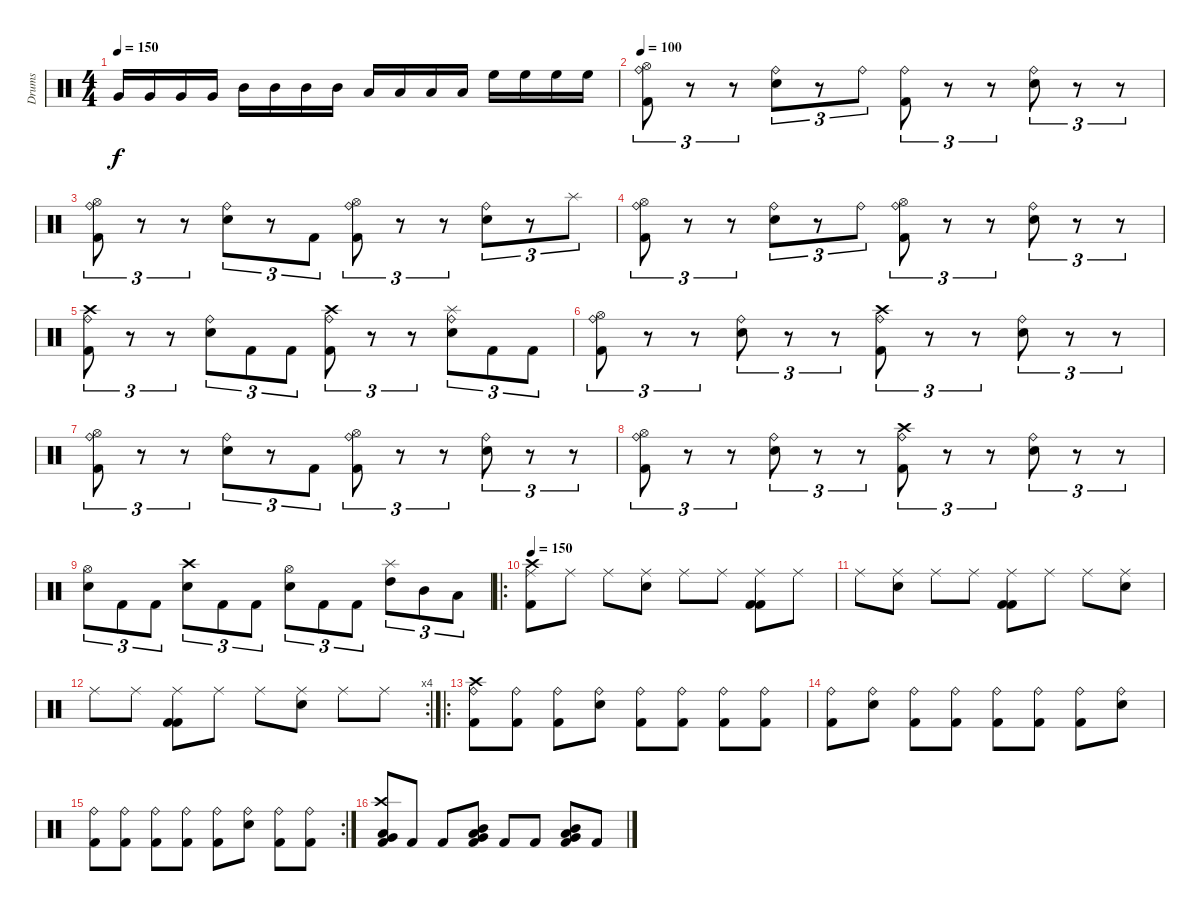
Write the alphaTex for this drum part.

\track ("Drums" "Drums") {instrument percussion}
\staff {score}
\articulation defaults
\ts (4 4)
\tempo 150
\clef neutral
\ks c "Very Low Tom (hit)".16{dy f} "Very Low Tom (hit)".16 "Very Low Tom (hit)".16 "Very Low Tom (hit)".16 "Mid Tom (hit)".16 "Mid Tom (hit)".16 "Mid Tom (hit)".16 "Mid Tom (hit)".16 "Low Tom (hit)".16 "Low Tom (hit)".16 "Low Tom (hit)".16 "Low Tom (hit)".16 "High Floor Tom (hit)".16 "High Floor Tom (hit)".16 "High Floor Tom (hit)".16 "High Floor Tom (hit)".16
|
\tempo 100
("Hi-Hat (open)" "Ride (bell)" "Kick (hit) 2").8{tu (3 2)} r.8{tu (3 2)} r.8{tu (3 2)} ("Ride (bell)" "Electric Snare (hit)").8{tu (3 2)} r.8{tu (3 2)} "Ride (bell)".8{tu (3 2)} ("Ride (bell)" "Kick (hit) 2").8{tu (3 2)} r.8{tu (3 2)} r.8{tu (3 2)} ("Ride (bell)" "Electric Snare (hit)").8{tu (3 2)} r.8{tu (3 2)} r.8{tu (3 2)} |
("Hi-Hat (open)" "Ride (bell)" "Kick (hit) 2").8{tu (3 2)} r.8{tu (3 2)} r.8{tu (3 2)} ("Ride (bell)" "Electric Snare (hit)").8{tu (3 2)} r.8{tu (3 2)} "Kick (hit) 2".8{tu (3 2)} ("Hi-Hat (open)" "Ride (bell)" "Kick (hit) 2").8{tu (3 2)} r.8{tu (3 2)} r.8{tu (3 2)} ("Ride (bell)" "Electric Snare (hit)").8{tu (3 2)} r.8{tu (3 2)} "Splash (hit)".8{tu (3 2)} |
("Hi-Hat (open)" "Ride (bell)" "Kick (hit) 2").8{tu (3 2)} r.8{tu (3 2)} r.8{tu (3 2)} ("Ride (bell)" "Electric Snare (hit)").8{tu (3 2)} r.8{tu (3 2)} "Ride (bell)".8{tu (3 2)} ("Hi-Hat (open)" "Ride (bell)" "Kick (hit) 2").8{tu (3 2)} r.8{tu (3 2)} r.8{tu (3 2)} ("Ride (bell)" "Electric Snare (hit)").8{tu (3 2)} r.8{tu (3 2)} r.8{tu (3 2)} |
("Crash high (hit)" "Ride (bell)" "Kick (hit) 2").8{tu (3 2)} r.8{tu (3 2)} r.8{tu (3 2)} ("Ride (bell)" "Electric Snare (hit)").8{tu (3 2)} "Kick (hit) 2".8{tu (3 2)} "Kick (hit) 2".8{tu (3 2)} ("Crash high (hit)" "Ride (bell)" "Kick (hit) 2").8{tu (3 2)} r.8{tu (3 2)} r.8{tu (3 2)} ("Splash (hit)" "Ride (bell)" "Electric Snare (hit)").8{tu (3 2)} "Kick (hit) 2".8{tu (3 2)} "Kick (hit) 2".8{tu (3 2)} |
("Hi-Hat (open)" "Ride (bell)" "Kick (hit) 2").8{tu (3 2)} r.8{tu (3 2)} r.8{tu (3 2)} ("Ride (bell)" "Electric Snare (hit)").8{tu (3 2)} r.8{tu (3 2)} r.8{tu (3 2)} ("Crash high (hit)" "Ride (bell)" "Kick (hit) 2").8{tu (3 2)} r.8{tu (3 2)} r.8{tu (3 2)} ("Ride (bell)" "Electric Snare (hit)").8{tu (3 2)} r.8{tu (3 2)} r.8{tu (3 2)} |
("Hi-Hat (open)" "Ride (bell)" "Kick (hit) 2").8{tu (3 2)} r.8{tu (3 2)} r.8{tu (3 2)} ("Ride (bell)" "Electric Snare (hit)").8{tu (3 2)} r.8{tu (3 2)} "Kick (hit) 2".8{tu (3 2)} ("Hi-Hat (open)" "Ride (bell)" "Kick (hit) 2").8{tu (3 2)} r.8{tu (3 2)} r.8{tu (3 2)} ("Ride (bell)" "Electric Snare (hit)").8{tu (3 2)} r.8{tu (3 2)} r.8{tu (3 2)} |
("Hi-Hat (open)" "Ride (bell)" "Kick (hit) 2").8{tu (3 2)} r.8{tu (3 2)} r.8{tu (3 2)} ("Ride (bell)" "Electric Snare (hit)").8{tu (3 2)} r.8{tu (3 2)} r.8{tu (3 2)} ("Crash high (hit)" "Ride (bell)" "Kick (hit) 2").8{tu (3 2)} r.8{tu (3 2)} r.8{tu (3 2)} ("Ride (bell)" "Electric Snare (hit)").8{tu (3 2)} r.8{tu (3 2)} r.8{tu (3 2)} |
("Hi-Hat (open)" "Electric Snare (hit)").8{tu (3 2)} "Kick (hit) 2".8{tu (3 2)} "Kick (hit) 2".8{tu (3 2)} ("Crash high (hit)" "Electric Snare (hit)").8{tu (3 2)} "Kick (hit) 2".8{tu (3 2)} "Kick (hit) 2".8{tu (3 2)} ("Hi-Hat (open)" "Electric Snare (hit)").8{tu (3 2)} "Kick (hit) 2".8{tu (3 2)} "Kick (hit) 2".8{tu (3 2)} ("Splash (hit)" "High Tom (hit)").8{tu (3 2)} "Mid Tom (hit)".8{tu (3 2)} "Low Tom (hit)".8{tu (3 2)} |
\ro
\tempo 150
("Crash high (hit)" "Kick (hit) 2" "Ride (middle)").8 "Ride (middle)".8 "Ride (middle)".8 ("Snare (hit) 2" "Ride (middle)").8 "Ride (middle)".8 "Ride (middle)".8 ("Kick (hit) 2" "Kick (hit) 2" "Ride (middle)").8 "Ride (middle)".8 |
"Ride (middle)".8 ("Snare (hit) 2" "Ride (middle)").8 "Ride (middle)".8 "Ride (middle)".8 ("Kick (hit) 2" "Kick (hit) 2" "Ride (middle)").8 "Ride (middle)".8 "Ride (middle)".8 ("Snare (hit) 2" "Ride (middle)").8 |
\rc 4 "Ride (middle)".8 "Ride (middle)".8
("Kick (hit) 2" "Kick (hit) 2" "Ride (middle)").8 "Ride (middle)".8 "Ride (middle)".8 ("Snare (hit) 2" "Ride (middle)").8 "Ride (middle)".8 "Ride (middle)".8 |
\ro
("Crash high (hit)" "Ride (bell)" "Kick (hit) 2").8 ("Ride (bell)" "Kick (hit) 2").8 ("Ride (bell)" "Kick (hit) 2").8 ("Ride (bell)" "Snare (hit) 2").8 ("Ride (bell)" "Kick (hit) 2").8 ("Ride (bell)" "Kick (hit) 2").8 ("Ride (bell)" "Kick (hit) 2").8 ("Ride (bell)" "Kick (hit) 2").8 |
("Ride (bell)" "Kick (hit) 2").8 ("Ride (bell)" "Snare (hit) 2").8 ("Ride (bell)" "Kick (hit) 2").8 ("Ride (bell)" "Kick (hit) 2").8 ("Ride (bell)" "Kick (hit) 2").8 ("Ride (bell)" "Kick (hit) 2").8 ("Ride (bell)" "Kick (hit) 2").8 ("Ride (bell)" "Snare (hit) 2").8 |
\rc 2
("Ride (bell)" "Kick (hit) 2").8 ("Ride (bell)" "Kick (hit) 2").8 ("Ride (bell)" "Kick (hit) 2").8 ("Ride (bell)" "Kick (hit) 2").8 ("Ride (bell)" "Kick (hit) 2").8 ("Ride (bell)" "Snare (hit) 2").8 ("Ride (bell)" "Kick (hit) 2").8 ("Ride (bell)" "Kick (hit) 2").8 |
("Crash high (hit)" "Very Low Tom (hit)" "Kick (hit) 2" "Low Floor Tom (hit)").8 "Kick (hit) 2".8 "Kick (hit) 2".8 ("Mid Tom (hit)" "Very Low Tom (hit)" "Kick (hit) 2" "Low Floor Tom (hit)").8 "Kick (hit) 2".8 "Kick (hit) 2".8 ("Mid Tom (hit)" "Very Low Tom (hit)" "Kick (hit) 2" "Low Floor Tom (hit)").8 "Kick (hit) 2".8
